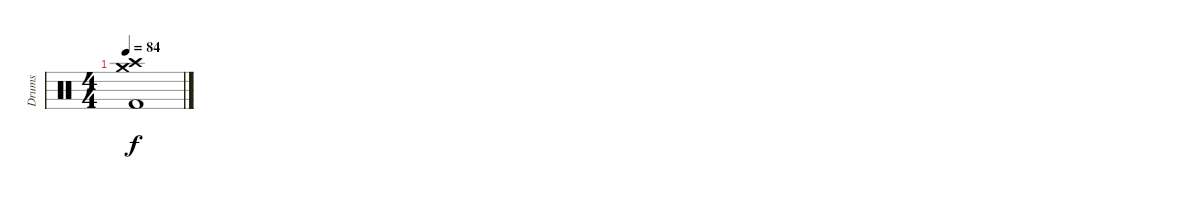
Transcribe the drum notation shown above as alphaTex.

\track ("Drums" "Drums") {instrument percussion}
\staff {score}
\articulation defaults
\ts (4 4)
\tempo 84
\clef neutral
\ks c
("Crash high (hit)" "Crash medium (hit)" "Kick (hit) 2").1{dy f}
